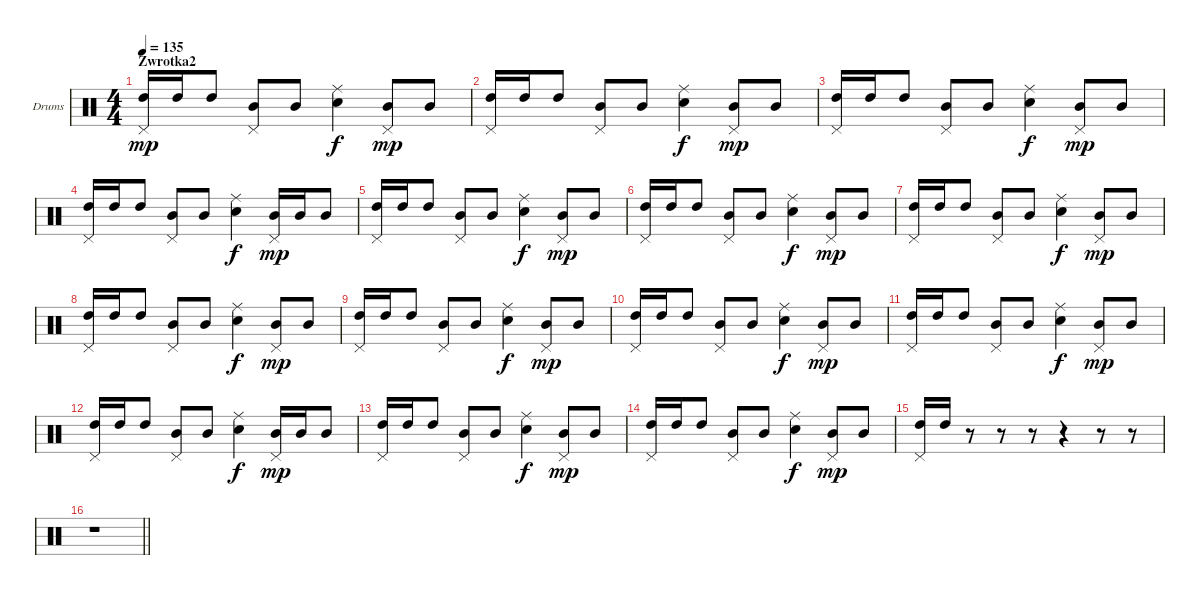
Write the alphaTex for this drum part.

\bracketExtendMode groupsimilarinstruments
\firstSystemTrackNameOrientation horizontal
\otherSystemsTrackNameOrientation horizontal
\track ("Drumkit" "Drums") {instrument percussion}
\staff {score}
\articulation defaults
\ts (4 4)
\section ("" "Zwrotka2")
\tempo 135
\clef neutral
\ks c
("High Tom (hit)" "Pedal Hi-Hat (hit)").16{dy mp} "High Tom (hit)".16 "High Tom (hit)".8 ("Mid Tom (hit)" "Pedal Hi-Hat (hit)").8 "Mid Tom (hit)".8 ("Snare (hit) 2" "Ride (middle)").4{dy f} ("Mid Tom (hit)" "Pedal Hi-Hat (hit)").8{dy mp} "Mid Tom (hit)".8 |
("High Tom (hit)" "Pedal Hi-Hat (hit)").16 "High Tom (hit)".16 "High Tom (hit)".8 ("Mid Tom (hit)" "Pedal Hi-Hat (hit)").8 "Mid Tom (hit)".8 ("Snare (hit) 2" "Ride (middle)").4{dy f} ("Mid Tom (hit)" "Pedal Hi-Hat (hit)").8{dy mp} "Mid Tom (hit)".8 |
("High Tom (hit)" "Pedal Hi-Hat (hit)").16 "High Tom (hit)".16 "High Tom (hit)".8 ("Mid Tom (hit)" "Pedal Hi-Hat (hit)").8 "Mid Tom (hit)".8 ("Snare (hit) 2" "Ride (middle)").4{dy f} ("Mid Tom (hit)" "Pedal Hi-Hat (hit)").8{dy mp} "Mid Tom (hit)".8 |
("High Tom (hit)" "Pedal Hi-Hat (hit)").16 "High Tom (hit)".16 "High Tom (hit)".8 ("Mid Tom (hit)" "Pedal Hi-Hat (hit)").8 "Mid Tom (hit)".8 ("Snare (hit) 2" "Ride (middle)").4{dy f} ("Mid Tom (hit)" "Pedal Hi-Hat (hit)").16{dy mp} "Mid Tom (hit)".16 "Mid Tom (hit)".8 |
("High Tom (hit)" "Pedal Hi-Hat (hit)").16 "High Tom (hit)".16 "High Tom (hit)".8 ("Mid Tom (hit)" "Pedal Hi-Hat (hit)").8 "Mid Tom (hit)".8 ("Snare (hit) 2" "Ride (middle)").4{dy f} ("Mid Tom (hit)" "Pedal Hi-Hat (hit)").8{dy mp} "Mid Tom (hit)".8 |
("High Tom (hit)" "Pedal Hi-Hat (hit)").16 "High Tom (hit)".16 "High Tom (hit)".8 ("Mid Tom (hit)" "Pedal Hi-Hat (hit)").8 "Mid Tom (hit)".8 ("Snare (hit) 2" "Ride (middle)").4{dy f} ("Mid Tom (hit)" "Pedal Hi-Hat (hit)").8{dy mp} "Mid Tom (hit)".8 |
("High Tom (hit)" "Pedal Hi-Hat (hit)").16 "High Tom (hit)".16 "High Tom (hit)".8 ("Mid Tom (hit)" "Pedal Hi-Hat (hit)").8 "Mid Tom (hit)".8 ("Snare (hit) 2" "Ride (middle)").4{dy f} ("Mid Tom (hit)" "Pedal Hi-Hat (hit)").8{dy mp} "Mid Tom (hit)".8 |
("High Tom (hit)" "Pedal Hi-Hat (hit)").16 "High Tom (hit)".16 "High Tom (hit)".8 ("Mid Tom (hit)" "Pedal Hi-Hat (hit)").8 "Mid Tom (hit)".8 ("Snare (hit) 2" "Ride (middle)").4{dy f} ("Mid Tom (hit)" "Pedal Hi-Hat (hit)").8{dy mp} "Mid Tom (hit)".8 |
("High Tom (hit)" "Pedal Hi-Hat (hit)").16 "High Tom (hit)".16 "High Tom (hit)".8 ("Mid Tom (hit)" "Pedal Hi-Hat (hit)").8 "Mid Tom (hit)".8 ("Snare (hit) 2" "Ride (middle)").4{dy f} ("Mid Tom (hit)" "Pedal Hi-Hat (hit)").8{dy mp} "Mid Tom (hit)".8 |
("High Tom (hit)" "Pedal Hi-Hat (hit)").16 "High Tom (hit)".16 "High Tom (hit)".8 ("Mid Tom (hit)" "Pedal Hi-Hat (hit)").8 "Mid Tom (hit)".8 ("Snare (hit) 2" "Ride (middle)").4{dy f} ("Mid Tom (hit)" "Pedal Hi-Hat (hit)").8{dy mp} "Mid Tom (hit)".8 |
("High Tom (hit)" "Pedal Hi-Hat (hit)").16 "High Tom (hit)".16 "High Tom (hit)".8 ("Mid Tom (hit)" "Pedal Hi-Hat (hit)").8 "Mid Tom (hit)".8 ("Snare (hit) 2" "Ride (middle)").4{dy f} ("Mid Tom (hit)" "Pedal Hi-Hat (hit)").8{dy mp} "Mid Tom (hit)".8 |
("High Tom (hit)" "Pedal Hi-Hat (hit)").16 "High Tom (hit)".16 "High Tom (hit)".8 ("Mid Tom (hit)" "Pedal Hi-Hat (hit)").8 "Mid Tom (hit)".8 ("Snare (hit) 2" "Ride (middle)").4{dy f} ("Mid Tom (hit)" "Pedal Hi-Hat (hit)").16{dy mp} "Mid Tom (hit)".16 "Mid Tom (hit)".8 |
("High Tom (hit)" "Pedal Hi-Hat (hit)").16 "High Tom (hit)".16 "High Tom (hit)".8 ("Mid Tom (hit)" "Pedal Hi-Hat (hit)").8 "Mid Tom (hit)".8 ("Snare (hit) 2" "Ride (middle)").4{dy f} ("Mid Tom (hit)" "Pedal Hi-Hat (hit)").8{dy mp} "Mid Tom (hit)".8 |
("High Tom (hit)" "Pedal Hi-Hat (hit)").16 "High Tom (hit)".16 "High Tom (hit)".8 ("Mid Tom (hit)" "Pedal Hi-Hat (hit)").8 "Mid Tom (hit)".8 ("Snare (hit) 2" "Ride (middle)").4{dy f} ("Mid Tom (hit)" "Pedal Hi-Hat (hit)").8{dy mp} "Mid Tom (hit)".8 |
("High Tom (hit)" "Pedal Hi-Hat (hit)").16 "High Tom (hit)".16 r.8 r.8 r.8 r.4 r.8 r.8 |
\barLineRight lightlight
r.1
